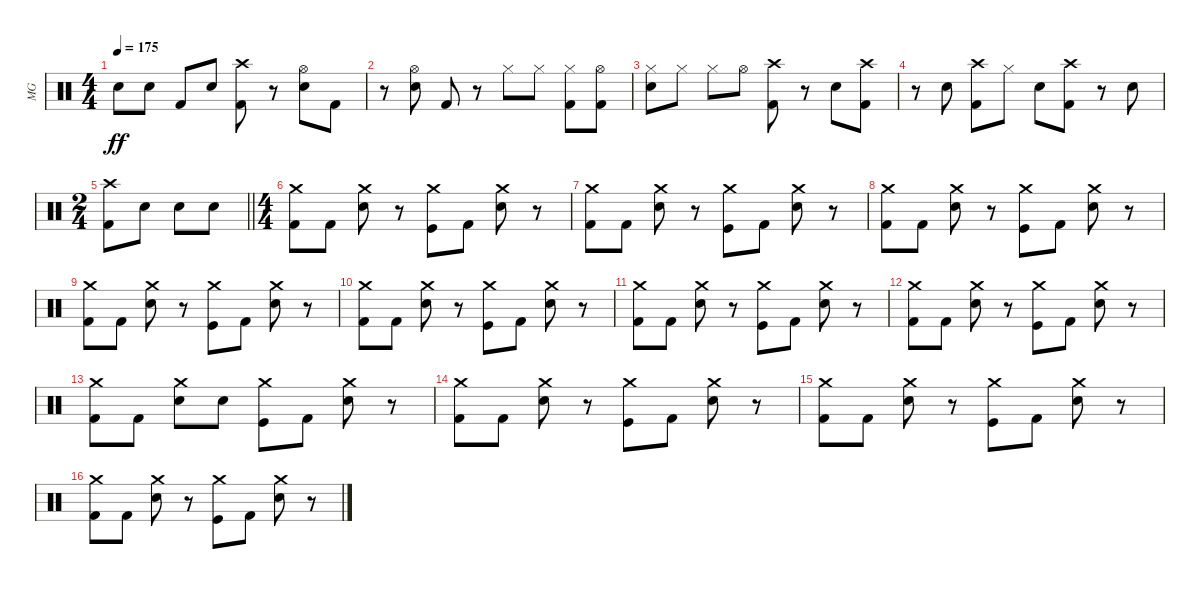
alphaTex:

\track ("MG" "MG") {instrument percussion}
\staff {score}
\articulation defaults
\ts (4 4)
\tempo 175
\clef neutral
\ks c "Electric Snare (hit)".8{dy ff} "Electric Snare (hit)".8 "Kick (hit) 2".8 "Electric Snare (hit)".8
("Crash high (hit)" "Kick (hit) 2").8 r.8 ("Hi-Hat (open)" "Electric Snare (hit)").8 "Kick (hit) 2".8 |
r.8 ("Hi-Hat (open)" "Electric Snare (hit)").8 "Kick (hit) 2".8 r.8 "Hi-Hat (closed)".8 "Hi-Hat (closed)".8 ("Hi-Hat (closed)" "Kick (hit) 2").8 ("Hi-Hat (open)" "Kick (hit) 2").8 |
("Hi-Hat (closed)" "Electric Snare (hit)").8 "Hi-Hat (closed)".8 "Hi-Hat (closed)".8 "Hi-Hat (open)".8 ("Crash high (hit)" "Kick (hit) 2").8 r.8 "Electric Snare (hit)".8 ("Crash high (hit)" "Kick (hit) 2").8 |
r.8 "Electric Snare (hit)".8 ("Crash high (hit)" "Kick (hit) 2").8 "Hi-Hat (closed)".8 "Electric Snare (hit)".8 ("Crash high (hit)" "Kick (hit) 2").8 r.8 "Electric Snare (hit)".8 |
\ts (2 4)
\barLineRight lightlight
("Crash high (hit)" "Kick (hit) 2").8 "Electric Snare (hit)".8 "Electric Snare (hit)".8 "Electric Snare (hit)".8 |
\ts (4 4)
\section ("" "")
("Crash medium (hit)" "Kick (hit) 2").8 "Kick (hit) 2".8 ("Crash medium (hit)" "Electric Snare (hit)").8 r.8 ("Crash medium (hit)" "Kick (hit)").8 "Kick (hit) 2".8 ("Crash medium (hit)" "Electric Snare (hit)").8 r.8 |
("Crash medium (hit)" "Kick (hit) 2").8 "Kick (hit) 2".8 ("Crash medium (hit)" "Electric Snare (hit)").8 r.8 ("Crash medium (hit)" "Kick (hit)").8 "Kick (hit) 2".8 ("Crash medium (hit)" "Electric Snare (hit)").8 r.8 |
("Crash medium (hit)" "Kick (hit) 2").8 "Kick (hit) 2".8 ("Crash medium (hit)" "Electric Snare (hit)").8 r.8 ("Crash medium (hit)" "Kick (hit)").8 "Kick (hit) 2".8 ("Crash medium (hit)" "Electric Snare (hit)").8 r.8 |
("Crash medium (hit)" "Kick (hit) 2").8 "Kick (hit) 2".8 ("Crash medium (hit)" "Electric Snare (hit)").8 r.8 ("Crash medium (hit)" "Kick (hit)").8 "Kick (hit) 2".8 ("Crash medium (hit)" "Electric Snare (hit)").8 r.8 |
("Crash medium (hit)" "Kick (hit) 2").8 "Kick (hit) 2".8 ("Crash medium (hit)" "Electric Snare (hit)").8 r.8 ("Crash medium (hit)" "Kick (hit)").8 "Kick (hit) 2".8 ("Crash medium (hit)" "Electric Snare (hit)").8 r.8 |
("Crash medium (hit)" "Kick (hit) 2").8 "Kick (hit) 2".8 ("Crash medium (hit)" "Electric Snare (hit)").8 r.8 ("Crash medium (hit)" "Kick (hit)").8 "Kick (hit) 2".8 ("Crash medium (hit)" "Electric Snare (hit)").8 r.8 |
("Crash medium (hit)" "Kick (hit) 2").8 "Kick (hit) 2".8 ("Crash medium (hit)" "Electric Snare (hit)").8 r.8 ("Crash medium (hit)" "Kick (hit)").8 "Kick (hit) 2".8 ("Crash medium (hit)" "Electric Snare (hit)").8 r.8 |
("Crash medium (hit)" "Kick (hit) 2").8 "Kick (hit) 2".8 ("Crash medium (hit)" "Electric Snare (hit)").8 "Electric Snare (hit)".8 ("Crash medium (hit)" "Kick (hit)").8 "Kick (hit) 2".8 ("Crash medium (hit)" "Electric Snare (hit)").8 r.8 |
("Crash medium (hit)" "Kick (hit) 2").8 "Kick (hit) 2".8 ("Crash medium (hit)" "Electric Snare (hit)").8 r.8 ("Crash medium (hit)" "Kick (hit)").8 "Kick (hit) 2".8 ("Crash medium (hit)" "Electric Snare (hit)").8 r.8 |
("Crash medium (hit)" "Kick (hit) 2").8 "Kick (hit) 2".8 ("Crash medium (hit)" "Electric Snare (hit)").8 r.8 ("Crash medium (hit)" "Kick (hit)").8 "Kick (hit) 2".8 ("Crash medium (hit)" "Electric Snare (hit)").8 r.8 |
("Crash medium (hit)" "Kick (hit) 2").8 "Kick (hit) 2".8 ("Crash medium (hit)" "Electric Snare (hit)").8 r.8 ("Crash medium (hit)" "Kick (hit)").8 "Kick (hit) 2".8 ("Crash medium (hit)" "Electric Snare (hit)").8 r.8
